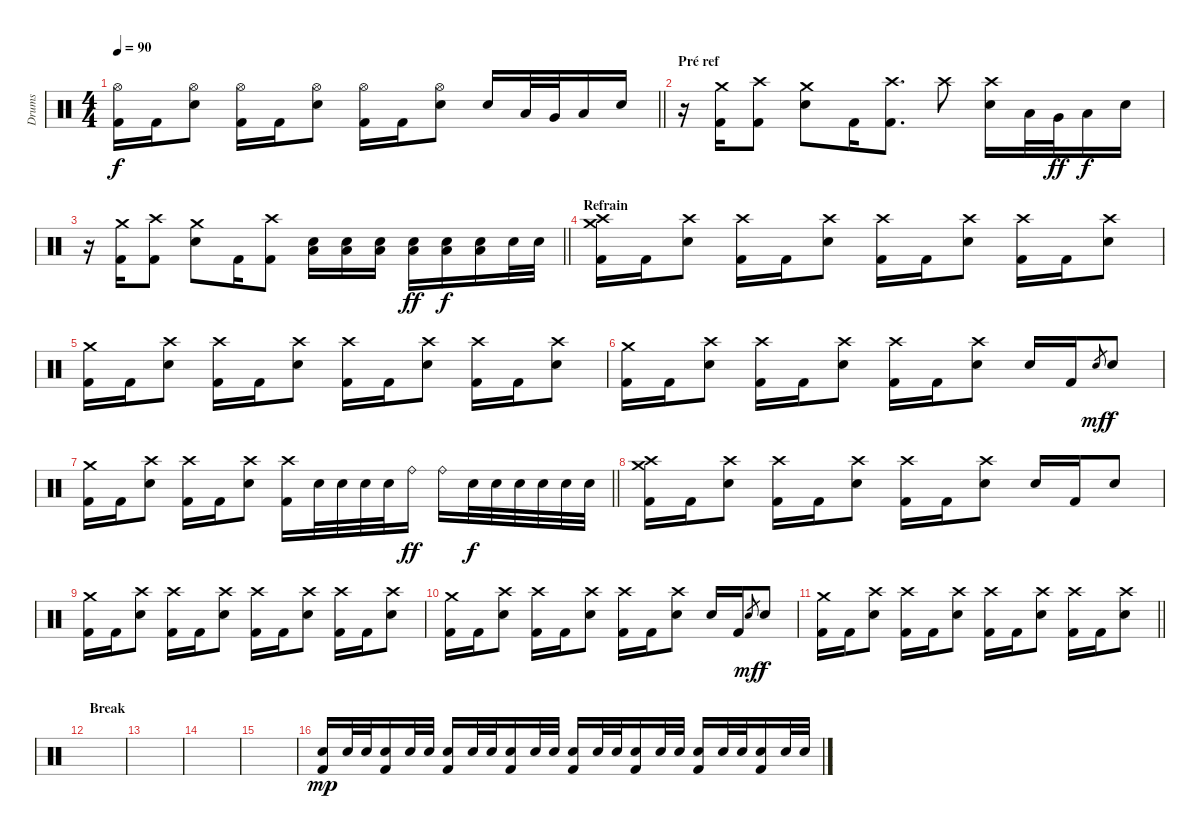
\track ("Drums" "Drums") {instrument percussion}
\staff {score}
\articulation defaults
\ts (4 4)
\tempo 90
\clef neutral
\barLineRight lightlight
\ks c
("Hi-Hat (open)" "Kick (hit) 2").16{dy f} "Kick (hit) 2".16 ("Hi-Hat (open)" "Electric Snare (hit)").8 ("Hi-Hat (open)" "Kick (hit) 2").16 "Kick (hit) 2".16 ("Hi-Hat (open)" "Electric Snare (hit)").8 ("Hi-Hat (open)" "Kick (hit) 2").16 "Kick (hit) 2".16 ("Hi-Hat (open)" "Electric Snare (hit)").8 "Electric Snare (hit)".16 "Low Tom (hit)".32 "Very Low Tom (hit)".32 "Low Floor Tom (hit)".16 "Electric Snare (hit)".16 |
\section ("" "Pré ref")
r.16 ("Crash medium (hit)" "Kick (hit) 2").16 ("Crash high (hit)" "Kick (hit) 2").8 ("Crash medium (hit)" "Electric Snare (hit)").8 "Kick (hit) 2".16 ("Crash high (hit)" "Kick (hit) 2").8{d} "Crash high (hit)".8 ("Crash high (hit)" "Electric Snare (hit)").16 "Low Tom (hit)".32 "Very Low Tom (hit)".32{dy ff} "Low Floor Tom (hit)".16{dy f} "Electric Snare (hit)".16 |
\barLineRight lightlight
r.16 ("Crash medium (hit)" "Kick (hit) 2").16 ("Crash high (hit)" "Kick (hit) 2").8 ("Crash medium (hit)" "Electric Snare (hit)").8 "Kick (hit) 2".16 ("Crash high (hit)" "Kick (hit) 2").8 ("Low Floor Tom (hit)" "Electric Snare (hit)").16 ("Low Floor Tom (hit)" "Electric Snare (hit)").16 ("Low Floor Tom (hit)" "Electric Snare (hit)").16 ("Low Floor Tom (hit)" "Electric Snare (hit)").16{dy ff} ("Low Floor Tom (hit)" "Electric Snare (hit)").16{dy f} ("Low Floor Tom (hit)" "Electric Snare (hit)").16 "Electric Snare (hit)".32 "Electric Snare (hit)".32 |
\section ("" "Refrain")
("Crash high (hit)" "Crash medium (hit)" "Kick (hit) 2").16 "Kick (hit) 2".16 ("Crash high (hit)" "Electric Snare (hit)").8 ("Crash high (hit)" "Kick (hit) 2").16 "Kick (hit) 2".16 ("Crash high (hit)" "Electric Snare (hit)").8 ("Crash high (hit)" "Kick (hit) 2").16 "Kick (hit) 2".16 ("Crash high (hit)" "Electric Snare (hit)").8 ("Crash high (hit)" "Kick (hit) 2").16 "Kick (hit) 2".16 ("Crash high (hit)" "Electric Snare (hit)").8 |
("Crash medium (hit)" "Kick (hit) 2").16 "Kick (hit) 2".16 ("Crash high (hit)" "Electric Snare (hit)").8 ("Crash high (hit)" "Kick (hit) 2").16 "Kick (hit) 2".16 ("Crash high (hit)" "Electric Snare (hit)").8 ("Crash high (hit)" "Kick (hit) 2").16 "Kick (hit) 2".16 ("Crash high (hit)" "Electric Snare (hit)").8 ("Crash high (hit)" "Kick (hit) 2").16 "Kick (hit) 2".16 ("Crash high (hit)" "Electric Snare (hit)").8 |
("Crash medium (hit)" "Kick (hit) 2").16 "Kick (hit) 2".16 ("Crash high (hit)" "Electric Snare (hit)").8 ("Crash high (hit)" "Kick (hit) 2").16 "Kick (hit) 2".16 ("Crash high (hit)" "Electric Snare (hit)").8 ("Crash high (hit)" "Kick (hit) 2").16 "Kick (hit) 2".16 ("Crash high (hit)" "Electric Snare (hit)").8 "Electric Snare (hit)".16 "Kick (hit) 2".16 "Electric Snare (hit)".8{gr dy mf} "Electric Snare (hit)".8{dy f} |
\barLineRight lightlight
("Crash medium (hit)" "Kick (hit) 2").16 "Kick (hit) 2".16 ("Crash high (hit)" "Electric Snare (hit)").8 ("Crash high (hit)" "Kick (hit) 2").16 "Kick (hit) 2".16 ("Crash high (hit)" "Electric Snare (hit)").8 ("Crash high (hit)" "Kick (hit) 2").16 "Electric Snare (hit)".32 "Electric Snare (hit)".32 "Electric Snare (hit)".32 "Electric Snare (hit)".32 "Ride (bell)".16{dy ff} "Ride (bell)".16 "Electric Snare (hit)".32{dy f} "Electric Snare (hit)".32 "Electric Snare (hit)".32 "Electric Snare (hit)".32 "Electric Snare (hit)".32 "Electric Snare (hit)".32 |
("Crash high (hit)" "Crash medium (hit)" "Kick (hit) 2").16 "Kick (hit) 2".16 ("Crash high (hit)" "Electric Snare (hit)").8 ("Crash high (hit)" "Kick (hit) 2").16 "Kick (hit) 2".16 ("Crash high (hit)" "Electric Snare (hit)").8 ("Crash high (hit)" "Kick (hit) 2").16 "Kick (hit) 2".16 ("Crash high (hit)" "Electric Snare (hit)").8 "Electric Snare (hit)".16 "Kick (hit) 2".16 "Electric Snare (hit)".8 |
("Crash medium (hit)" "Kick (hit) 2").16 "Kick (hit) 2".16 ("Crash high (hit)" "Electric Snare (hit)").8 ("Crash high (hit)" "Kick (hit) 2").16 "Kick (hit) 2".16 ("Crash high (hit)" "Electric Snare (hit)").8 ("Crash high (hit)" "Kick (hit) 2").16 "Kick (hit) 2".16 ("Crash high (hit)" "Electric Snare (hit)").8 ("Crash high (hit)" "Kick (hit) 2").16 "Kick (hit) 2".16 ("Crash high (hit)" "Electric Snare (hit)").8 |
("Crash medium (hit)" "Kick (hit) 2").16 "Kick (hit) 2".16 ("Crash high (hit)" "Electric Snare (hit)").8 ("Crash high (hit)" "Kick (hit) 2").16 "Kick (hit) 2".16 ("Crash high (hit)" "Electric Snare (hit)").8 ("Crash high (hit)" "Kick (hit) 2").16 "Kick (hit) 2".16 ("Crash high (hit)" "Electric Snare (hit)").8 "Electric Snare (hit)".16 "Kick (hit) 2".16 "Electric Snare (hit)".8{gr dy mf} "Electric Snare (hit)".8{dy f} |
\barLineRight lightlight
("Crash medium (hit)" "Kick (hit) 2").16 "Kick (hit) 2".16 ("Crash high (hit)" "Electric Snare (hit)").8 ("Crash high (hit)" "Kick (hit) 2").16 "Kick (hit) 2".16 ("Crash high (hit)" "Electric Snare (hit)").8 ("Crash high (hit)" "Kick (hit) 2").16 "Kick (hit) 2".16 ("Crash high (hit)" "Electric Snare (hit)").8 ("Crash high (hit)" "Kick (hit) 2").16 "Kick (hit) 2".16 ("Crash high (hit)" "Electric Snare (hit)").8 |
\section ("" "Break")
|
|
|
|
("Electric Snare (hit)" "Kick (hit) 2").16{dy mp} "Electric Snare (hit)".32 "Electric Snare (hit)".32 ("Electric Snare (hit)" "Kick (hit) 2").16 "Electric Snare (hit)".32 "Electric Snare (hit)".32 ("Electric Snare (hit)" "Kick (hit) 2").16 "Electric Snare (hit)".32 "Electric Snare (hit)".32 ("Electric Snare (hit)" "Kick (hit) 2").16 "Electric Snare (hit)".32 "Electric Snare (hit)".32 ("Electric Snare (hit)" "Kick (hit) 2").16 "Electric Snare (hit)".32 "Electric Snare (hit)".32 ("Electric Snare (hit)" "Kick (hit) 2").16 "Electric Snare (hit)".32 "Electric Snare (hit)".32 ("Electric Snare (hit)" "Kick (hit) 2").16 "Electric Snare (hit)".32 "Electric Snare (hit)".32 ("Electric Snare (hit)" "Kick (hit) 2").16 "Electric Snare (hit)".32 "Electric Snare (hit)".32
